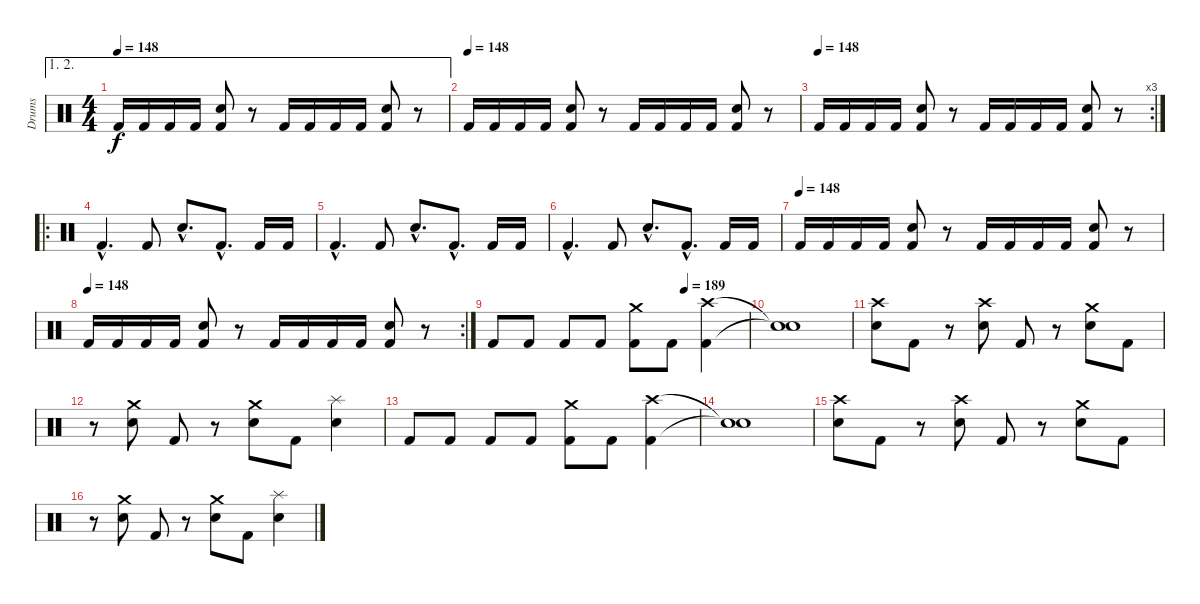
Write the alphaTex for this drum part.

\track ("Drums" "Drums") {instrument percussion}
\staff {score}
\articulation defaults
\ae (1 2)
\ts (4 4)
\tempo 148
\clef neutral
\ks c "Kick (hit) 2".16{dy f} "Kick (hit) 2".16 "Kick (hit) 2".16 "Kick (hit) 2".16
("Electric Snare (hit)" "Kick (hit) 2").8 r.8 "Kick (hit) 2".16 "Kick (hit) 2".16 "Kick (hit) 2".16 "Kick (hit) 2".16 ("Electric Snare (hit)" "Kick (hit) 2").8 r.8 |
\tempo (148)
"Kick (hit) 2".16 "Kick (hit) 2".16 "Kick (hit) 2".16 "Kick (hit) 2".16 ("Electric Snare (hit)" "Kick (hit) 2").8 r.8 "Kick (hit) 2".16 "Kick (hit) 2".16 "Kick (hit) 2".16 "Kick (hit) 2".16 ("Electric Snare (hit)" "Kick (hit) 2").8 r.8 |
\rc 3
\tempo (148)
"Kick (hit) 2".16 "Kick (hit) 2".16 "Kick (hit) 2".16 "Kick (hit) 2".16 ("Electric Snare (hit)" "Kick (hit) 2").8 r.8 "Kick (hit) 2".16 "Kick (hit) 2".16 "Kick (hit) 2".16 "Kick (hit) 2".16 ("Electric Snare (hit)" "Kick (hit) 2").8 r.8 |
\ro "Kick (hit) 2"{hac}.4{d} "Kick (hit) 2".8 "Electric Snare (hit)"{hac}.8{d} "Kick (hit) 2"{hac}.8{d} "Kick (hit) 2".16 "Kick (hit) 2".16
|
"Kick (hit) 2"{hac}.4{d} "Kick (hit) 2".8 "Electric Snare (hit)"{hac}.8{d} "Kick (hit) 2"{hac}.8{d} "Kick (hit) 2".16 "Kick (hit) 2".16 |
"Kick (hit) 2"{hac}.4{d} "Kick (hit) 2".8 "Electric Snare (hit)"{hac}.8{d} "Kick (hit) 2"{hac}.8{d} "Kick (hit) 2".16 "Kick (hit) 2".16 |
\tempo (148)
"Kick (hit) 2".16 "Kick (hit) 2".16 "Kick (hit) 2".16 "Kick (hit) 2".16 ("Electric Snare (hit)" "Kick (hit) 2").8 r.8 "Kick (hit) 2".16 "Kick (hit) 2".16 "Kick (hit) 2".16 "Kick (hit) 2".16 ("Electric Snare (hit)" "Kick (hit) 2").8 r.8 |
\rc 2
\tempo (148)
"Kick (hit) 2".16 "Kick (hit) 2".16 "Kick (hit) 2".16 "Kick (hit) 2".16 ("Electric Snare (hit)" "Kick (hit) 2").8 r.8 "Kick (hit) 2".16 "Kick (hit) 2".16 "Kick (hit) 2".16 "Kick (hit) 2".16 ("Electric Snare (hit)" "Kick (hit) 2").8 r.8 |
\tempo (189 0.75)
"Kick (hit) 2".8 "Kick (hit) 2".8 "Kick (hit) 2".8 "Kick (hit) 2".8 ("Crash medium (hit)" "Kick (hit) 2").8 "Kick (hit) 2".8 ("Crash high (hit)" "Kick (hit) 2").4 |
("Snare (hit)"{t} "Snare (hit)"{t}).1 |
("Crash high (hit)" "Electric Snare (hit)").8 "Kick (hit) 2".8 r.8 ("Crash high (hit)" "Electric Snare (hit)").8 "Kick (hit) 2".8 r.8 ("Crash medium (hit)" "Electric Snare (hit)").8 "Kick (hit) 2".8 |
r.8 ("Crash medium (hit)" "Electric Snare (hit)").8 "Kick (hit) 2".8 r.8 ("Crash medium (hit)" "Electric Snare (hit)").8 "Kick (hit) 2".8 ("Splash (hit)" "Electric Snare (hit)").4 |
"Kick (hit) 2".8 "Kick (hit) 2".8 "Kick (hit) 2".8 "Kick (hit) 2".8 ("Crash medium (hit)" "Kick (hit) 2").8 "Kick (hit) 2".8 ("Crash high (hit)" "Kick (hit) 2").4 |
("Snare (hit)"{t} "Snare (hit)"{t}).1 |
("Crash high (hit)" "Electric Snare (hit)").8 "Kick (hit) 2".8 r.8 ("Crash high (hit)" "Electric Snare (hit)").8 "Kick (hit) 2".8 r.8 ("Crash medium (hit)" "Electric Snare (hit)").8 "Kick (hit) 2".8 |
r.8 ("Crash medium (hit)" "Electric Snare (hit)").8 "Kick (hit) 2".8 r.8 ("Crash medium (hit)" "Electric Snare (hit)").8 "Kick (hit) 2".8 ("Splash (hit)" "Electric Snare (hit)").4
